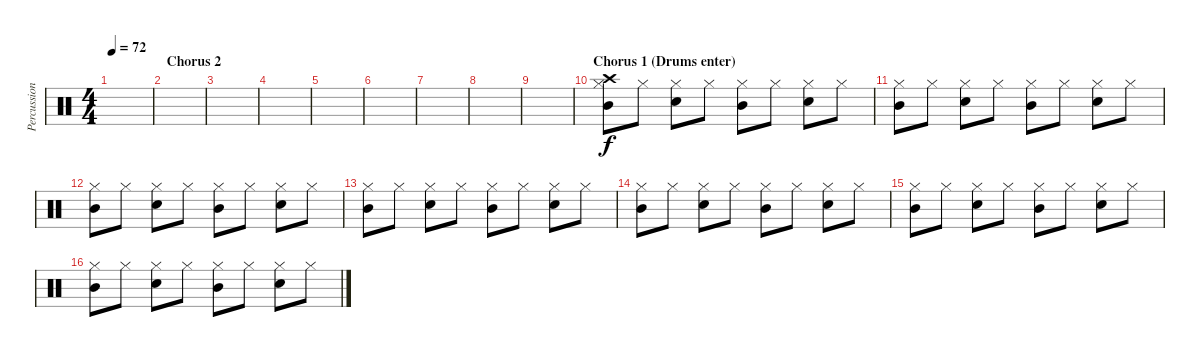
\track ("Percussion" "Percussion") {instrument percussion}
\staff {score}
\articulation defaults
\ts (4 4)
\tempo 72
\clef neutral
\ks c
|
\section ("" "Chorus 2")
|
|
|
|
|
|
|
|
\section ("" "Chorus 1 (Drums enter)")
("Crash high (hit)" "Hi-Hat (closed)" "Mid Tom (hit)").8 "Hi-Hat (closed)".8 ("Hi-Hat (closed)" "Snare (hit) 2").8 "Hi-Hat (closed)".8 ("Hi-Hat (closed)" "Mid Tom (hit)").8 "Hi-Hat (closed)".8 ("Hi-Hat (closed)" "Snare (hit) 2").8 "Hi-Hat (closed)".8 |
("Hi-Hat (closed)" "Mid Tom (hit)").8 "Hi-Hat (closed)".8 ("Hi-Hat (closed)" "Snare (hit) 2").8 "Hi-Hat (closed)".8 ("Hi-Hat (closed)" "Mid Tom (hit)").8 "Hi-Hat (closed)".8 ("Hi-Hat (closed)" "Snare (hit) 2").8 "Hi-Hat (closed)".8 |
("Hi-Hat (closed)" "Mid Tom (hit)").8 "Hi-Hat (closed)".8 ("Hi-Hat (closed)" "Snare (hit) 2").8 "Hi-Hat (closed)".8 ("Hi-Hat (closed)" "Mid Tom (hit)").8 "Hi-Hat (closed)".8 ("Hi-Hat (closed)" "Snare (hit) 2").8 "Hi-Hat (closed)".8 |
("Hi-Hat (closed)" "Mid Tom (hit)").8 "Hi-Hat (closed)".8 ("Hi-Hat (closed)" "Snare (hit) 2").8 "Hi-Hat (closed)".8 ("Hi-Hat (closed)" "Mid Tom (hit)").8 "Hi-Hat (closed)".8 ("Hi-Hat (closed)" "Snare (hit) 2").8 "Hi-Hat (closed)".8 |
("Hi-Hat (closed)" "Mid Tom (hit)").8 "Hi-Hat (closed)".8 ("Hi-Hat (closed)" "Snare (hit) 2").8 "Hi-Hat (closed)".8 ("Hi-Hat (closed)" "Mid Tom (hit)").8 "Hi-Hat (closed)".8 ("Hi-Hat (closed)" "Snare (hit) 2").8 "Hi-Hat (closed)".8 |
("Hi-Hat (closed)" "Mid Tom (hit)").8 "Hi-Hat (closed)".8 ("Hi-Hat (closed)" "Snare (hit) 2").8 "Hi-Hat (closed)".8 ("Hi-Hat (closed)" "Mid Tom (hit)").8 "Hi-Hat (closed)".8 ("Hi-Hat (closed)" "Snare (hit) 2").8 "Hi-Hat (closed)".8 |
("Hi-Hat (closed)" "Mid Tom (hit)").8 "Hi-Hat (closed)".8 ("Hi-Hat (closed)" "Snare (hit) 2").8 "Hi-Hat (closed)".8 ("Hi-Hat (closed)" "Mid Tom (hit)").8 "Hi-Hat (closed)".8 ("Hi-Hat (closed)" "Snare (hit) 2").8 "Hi-Hat (closed)".8
